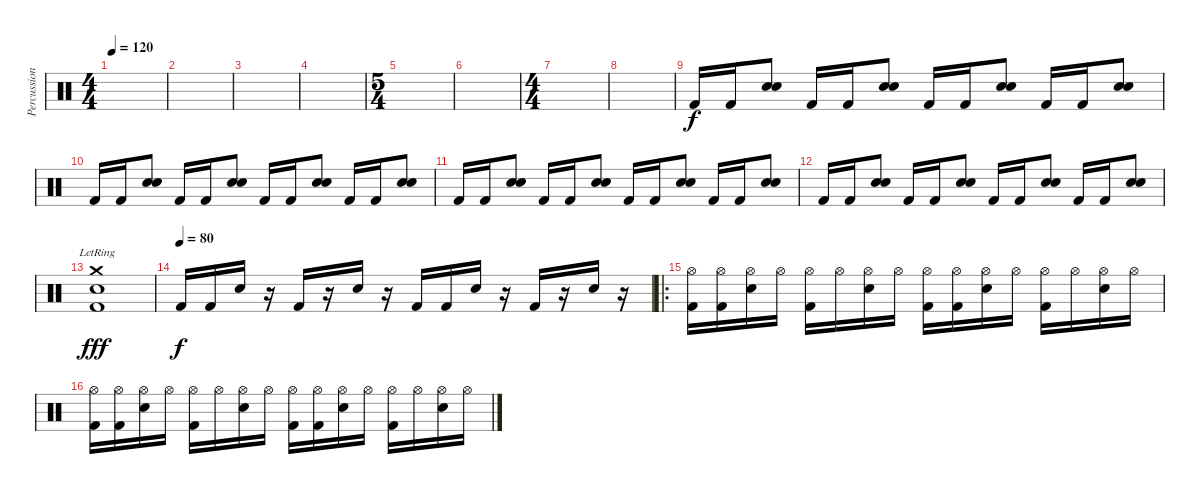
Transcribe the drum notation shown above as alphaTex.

\track ("Percussion" "Percussion") {instrument percussion}
\staff {score}
\articulation defaults
\ts (4 4)
\tempo 120
\clef neutral
\ks c
|
|
|
|
\ts (5 4)
|
|
\ts (4 4)
|
|
"Kick (hit) 2".16 "Kick (hit) 2".16 ("Electric Snare (hit)" "Snare (hit) 2").8 "Kick (hit) 2".16 "Kick (hit) 2".16 ("Electric Snare (hit)" "Snare (hit) 2").8 "Kick (hit) 2".16 "Kick (hit) 2".16 ("Electric Snare (hit)" "Snare (hit) 2").8 "Kick (hit) 2".16 "Kick (hit) 2".16 ("Electric Snare (hit)" "Snare (hit) 2").8 |
"Kick (hit) 2".16 "Kick (hit) 2".16 ("Electric Snare (hit)" "Snare (hit) 2").8 "Kick (hit) 2".16 "Kick (hit) 2".16 ("Electric Snare (hit)" "Snare (hit) 2").8 "Kick (hit) 2".16 "Kick (hit) 2".16 ("Electric Snare (hit)" "Snare (hit) 2").8 "Kick (hit) 2".16 "Kick (hit) 2".16 ("Electric Snare (hit)" "Snare (hit) 2").8 |
"Kick (hit) 2".16 "Kick (hit) 2".16 ("Electric Snare (hit)" "Snare (hit) 2").8 "Kick (hit) 2".16 "Kick (hit) 2".16 ("Electric Snare (hit)" "Snare (hit) 2").8 "Kick (hit) 2".16 "Kick (hit) 2".16 ("Electric Snare (hit)" "Snare (hit) 2").8 "Kick (hit) 2".16 "Kick (hit) 2".16 ("Electric Snare (hit)" "Snare (hit) 2").8 |
"Kick (hit) 2".16 "Kick (hit) 2".16 ("Electric Snare (hit)" "Snare (hit) 2").8 "Kick (hit) 2".16 "Kick (hit) 2".16 ("Electric Snare (hit)" "Snare (hit) 2").8 "Kick (hit) 2".16 "Kick (hit) 2".16 ("Electric Snare (hit)" "Snare (hit) 2").8 "Kick (hit) 2".16 "Kick (hit) 2".16 ("Electric Snare (hit)" "Snare (hit) 2").8 |
("Crash medium (hit)"{lr} "Snare (hit) 2" "Kick (hit) 2").1{dy fff} |
\tempo (80)
"Kick (hit) 2".16{dy f} "Kick (hit) 2".16 "Snare (hit) 2".16 r.16 "Kick (hit) 2".16 r.16 "Snare (hit) 2".16 r.16 "Kick (hit) 2".16 "Kick (hit) 2".16 "Snare (hit) 2".16 r.16 "Kick (hit) 2".16 r.16 "Snare (hit) 2".16 r.16 |
\ro
("Hi-Hat (open)" "Kick (hit) 2").16 ("Hi-Hat (open)" "Kick (hit) 2").16 ("Hi-Hat (open)" "Snare (hit) 2").16 "Hi-Hat (open)".16 ("Hi-Hat (open)" "Kick (hit) 2").16 "Hi-Hat (open)".16 ("Hi-Hat (open)" "Snare (hit) 2").16 "Hi-Hat (open)".16 ("Hi-Hat (open)" "Kick (hit) 2").16 ("Hi-Hat (open)" "Kick (hit) 2").16 ("Hi-Hat (open)" "Snare (hit) 2").16 "Hi-Hat (open)".16 ("Hi-Hat (open)" "Kick (hit) 2").16 "Hi-Hat (open)".16 ("Hi-Hat (open)" "Snare (hit) 2").16 "Hi-Hat (open)".16 |
("Hi-Hat (open)" "Kick (hit) 2").16 ("Hi-Hat (open)" "Kick (hit) 2").16 ("Hi-Hat (open)" "Snare (hit) 2").16 "Hi-Hat (open)".16 ("Hi-Hat (open)" "Kick (hit) 2").16 "Hi-Hat (open)".16 ("Hi-Hat (open)" "Snare (hit) 2").16 "Hi-Hat (open)".16 ("Hi-Hat (open)" "Kick (hit) 2").16 ("Hi-Hat (open)" "Kick (hit) 2").16 ("Hi-Hat (open)" "Snare (hit) 2").16 "Hi-Hat (open)".16 ("Hi-Hat (open)" "Kick (hit) 2").16 "Hi-Hat (open)".16 ("Hi-Hat (open)" "Snare (hit) 2").16 "Hi-Hat (open)".16
